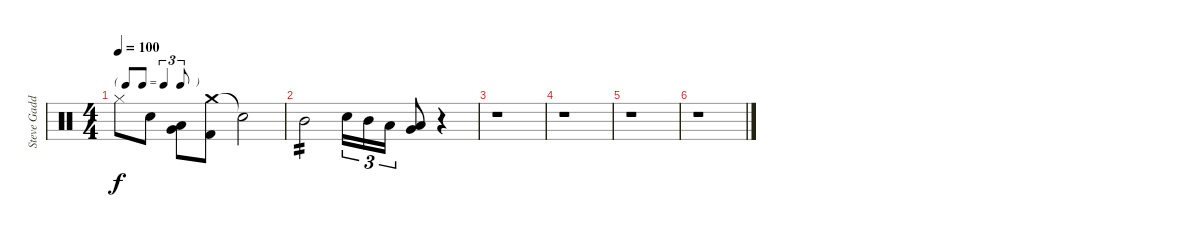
\track ("Steve Gadd Drums" "Steve Gadd") {instrument percussion}
\staff {score}
\articulation defaults
\ts (4 4)
\tf triplet8th
\tempo 100
\clef neutral
\ks c "Hi-Hat (closed)".8{dy f} "Snare (hit) 2".8
("Very Low Tom (hit)" "Low Tom (hit)").8 ("Crash medium (hit)" "Kick (hit) 2").8 "Snare (hit)"{t}.2 |
"Mid Tom (hit)".2{tp 2} "Snare (hit) 2".16{tu (3 2)} "Mid Tom (hit)".16{tu (3 2)} "Low Tom (hit)".16{tu (3 2)} ("Very Low Tom (hit)" "Low Floor Tom (hit)").8 r.4 |
r.1 |
r.1 |
r.1 |
r.1
